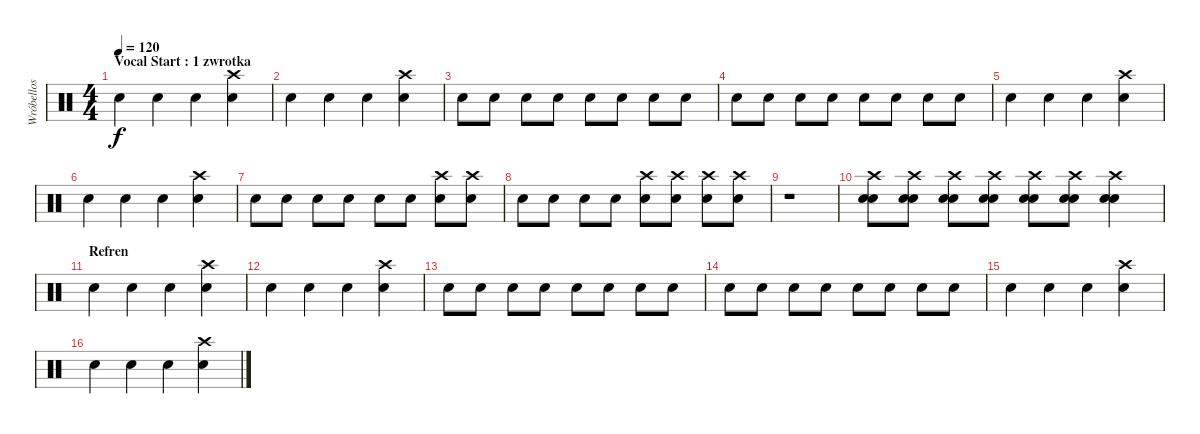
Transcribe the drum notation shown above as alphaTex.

\track ("Wróbellos " "Wróbellos ") {instrument percussion}
\staff {score}
\articulation defaults
\ts (4 4)
\section ("" "Vocal Start : 1 zwrotka")
\tempo 120
\clef neutral
\ks c "Electric Snare (hit)".4{dy f} "Electric Snare (hit)".4 "Electric Snare (hit)".4
("Electric Snare (hit)" "Crash high (hit)").4 |
"Electric Snare (hit)".4 "Electric Snare (hit)".4 "Electric Snare (hit)".4 ("Electric Snare (hit)" "Crash high (hit)").4 |
"Electric Snare (hit)".8 "Electric Snare (hit)".8 "Electric Snare (hit)".8 "Electric Snare (hit)".8 "Electric Snare (hit)".8 "Electric Snare (hit)".8 "Electric Snare (hit)".8 "Electric Snare (hit)".8 |
"Electric Snare (hit)".8 "Electric Snare (hit)".8 "Electric Snare (hit)".8 "Electric Snare (hit)".8 "Electric Snare (hit)".8 "Electric Snare (hit)".8 "Electric Snare (hit)".8 "Electric Snare (hit)".8 |
"Electric Snare (hit)".4 "Electric Snare (hit)".4 "Electric Snare (hit)".4 ("Electric Snare (hit)" "Crash high (hit)").4 |
"Electric Snare (hit)".4 "Electric Snare (hit)".4 "Electric Snare (hit)".4 ("Electric Snare (hit)" "Crash high (hit)").4 |
"Electric Snare (hit)".8 "Electric Snare (hit)".8 "Electric Snare (hit)".8 "Electric Snare (hit)".8 "Electric Snare (hit)".8 "Electric Snare (hit)".8 ("Electric Snare (hit)" "Crash high (hit)").8 ("Electric Snare (hit)" "Crash high (hit)").8 |
"Electric Snare (hit)".8 "Electric Snare (hit)".8 "Electric Snare (hit)".8 "Electric Snare (hit)".8 ("Electric Snare (hit)" "Crash high (hit)").8 ("Electric Snare (hit)" "Crash high (hit)").8 ("Electric Snare (hit)" "Crash high (hit)").8 ("Electric Snare (hit)" "Crash high (hit)").8 |
r.1 |
("Electric Snare (hit)" "Snare (hit) 2" "Crash high (hit)").8 ("Electric Snare (hit)" "Snare (hit) 2" "Crash high (hit)").8 ("Electric Snare (hit)" "Snare (hit) 2" "Crash high (hit)").8 ("Electric Snare (hit)" "Snare (hit) 2" "Crash high (hit)").8 ("Electric Snare (hit)" "Snare (hit) 2" "Crash high (hit)").8 ("Electric Snare (hit)" "Snare (hit) 2" "Crash high (hit)").8 ("Electric Snare (hit)" "Snare (hit) 2" "Crash high (hit)").4 |
\section ("" "Refren")
"Electric Snare (hit)".4 "Electric Snare (hit)".4 "Electric Snare (hit)".4 ("Electric Snare (hit)" "Crash high (hit)").4 |
"Electric Snare (hit)".4 "Electric Snare (hit)".4 "Electric Snare (hit)".4 ("Electric Snare (hit)" "Crash high (hit)").4 |
"Electric Snare (hit)".8 "Electric Snare (hit)".8 "Electric Snare (hit)".8 "Electric Snare (hit)".8 "Electric Snare (hit)".8 "Electric Snare (hit)".8 "Electric Snare (hit)".8 "Electric Snare (hit)".8 |
"Electric Snare (hit)".8 "Electric Snare (hit)".8 "Electric Snare (hit)".8 "Electric Snare (hit)".8 "Electric Snare (hit)".8 "Electric Snare (hit)".8 "Electric Snare (hit)".8 "Electric Snare (hit)".8 |
"Electric Snare (hit)".4 "Electric Snare (hit)".4 "Electric Snare (hit)".4 ("Electric Snare (hit)" "Crash high (hit)").4 |
"Electric Snare (hit)".4 "Electric Snare (hit)".4 "Electric Snare (hit)".4 ("Electric Snare (hit)" "Crash high (hit)").4
